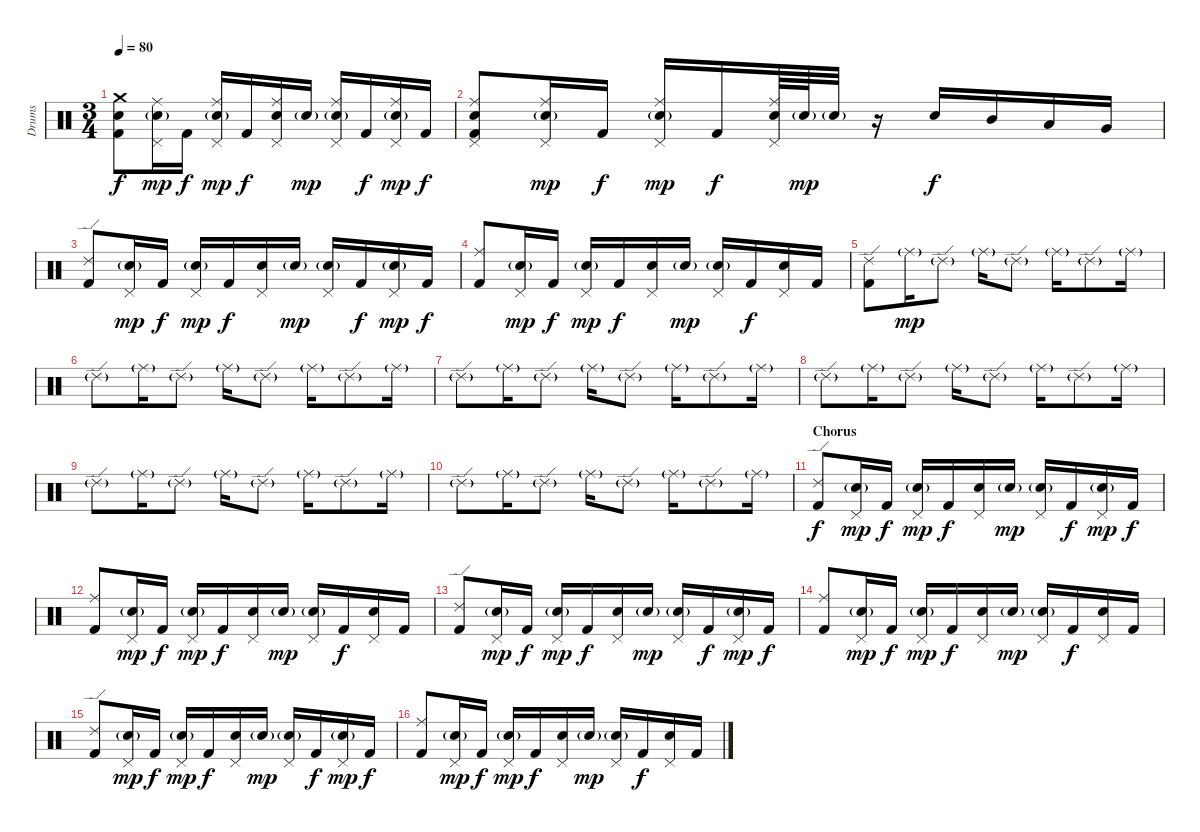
\track ("Drums" "Drums") {instrument percussion}
\staff {score}
\articulation defaults
\ts (3 4)
\tempo 80
\clef neutral
\ks c
("Crash medium (hit)" "Snare (hit) 2" "Kick (hit) 2").8{dy f} ("Ride (middle)" "Pedal Hi-Hat (hit)" "Snare (hit) 2"{g}).16{dy mp} "Kick (hit) 2".16{dy f} ("Ride (middle)" "Pedal Hi-Hat (hit)" "Snare (hit) 2"{g}).16{dy mp} "Kick (hit) 2".16{dy f} ("Ride (middle)" "Pedal Hi-Hat (hit)" "Snare (hit) 2").16 "Snare (hit) 2"{g}.16{dy mp} ("Ride (middle)" "Pedal Hi-Hat (hit)" "Snare (hit) 2"{g}).16 "Kick (hit) 2".16{dy f} ("Ride (middle)" "Pedal Hi-Hat (hit)" "Snare (hit) 2"{g}).16{dy mp} "Kick (hit) 2".16{dy f} |
("Ride (middle)" "Pedal Hi-Hat (hit)" "Snare (hit) 2" "Kick (hit) 2").8 ("Ride (middle)" "Pedal Hi-Hat (hit)" "Snare (hit) 2"{g}).16{dy mp} "Kick (hit) 2".16{dy f} ("Ride (middle)" "Pedal Hi-Hat (hit)" "Snare (hit) 2"{g}).16{dy mp} "Kick (hit) 2".16{dy f} ("Ride (middle)" "Pedal Hi-Hat (hit)" "Snare (hit) 2").64 "Snare (hit) 2"{g}.64{dy mp} "Snare (hit) 2"{g}.32 r.16 "Snare (hit) 2".16{dy f} "Mid Tom (hit)".16 "Low Tom (hit)".16 "Very Low Tom (hit)".16 |
("Ride (edge) 2" "Kick (hit) 2").8 ("Pedal Hi-Hat (hit)" "Snare (hit) 2"{g}).16{dy mp} "Kick (hit) 2".16{dy f} ("Pedal Hi-Hat (hit)" "Snare (hit) 2"{g}).16{dy mp} "Kick (hit) 2".16{dy f} ("Pedal Hi-Hat (hit)" "Snare (hit) 2").16 "Snare (hit) 2"{g}.16{dy mp} ("Pedal Hi-Hat (hit)" "Snare (hit) 2"{g}).16 "Kick (hit) 2".16{dy f} ("Pedal Hi-Hat (hit)" "Snare (hit) 2"{g}).16{dy mp} "Kick (hit) 2".16{dy f} |
("Ride (middle)" "Kick (hit) 2").8 ("Pedal Hi-Hat (hit)" "Snare (hit) 2"{g}).16{dy mp} "Kick (hit) 2".16{dy f} ("Pedal Hi-Hat (hit)" "Snare (hit) 2"{g}).16{dy mp} "Kick (hit) 2".16{dy f} ("Pedal Hi-Hat (hit)" "Snare (hit) 2").16 "Snare (hit) 2"{g}.16{dy mp} ("Pedal Hi-Hat (hit)" "Snare (hit) 2"{g}).16 "Kick (hit) 2".16{dy f} ("Pedal Hi-Hat (hit)" "Snare (hit) 2").16 "Kick (hit) 2".16 |
("Ride (edge) 2" "Kick (hit) 2").8 "Ride (middle)"{g}.16{dy mp} "Ride (edge) 2"{g}.8 "Ride (middle)"{g}.16 "Ride (edge) 2"{g}.8 "Ride (middle)"{g}.16 "Ride (edge) 2"{g}.8 "Ride (middle)"{g}.16 |
"Ride (edge) 2"{g}.8 "Ride (middle)"{g}.16 "Ride (edge) 2"{g}.8 "Ride (middle)"{g}.16 "Ride (edge) 2"{g}.8 "Ride (middle)"{g}.16 "Ride (edge) 2"{g}.8 "Ride (middle)"{g}.16 |
"Ride (edge) 2"{g}.8 "Ride (middle)"{g}.16 "Ride (edge) 2"{g}.8 "Ride (middle)"{g}.16 "Ride (edge) 2"{g}.8 "Ride (middle)"{g}.16 "Ride (edge) 2"{g}.8 "Ride (middle)"{g}.16 |
"Ride (edge) 2"{g}.8 "Ride (middle)"{g}.16 "Ride (edge) 2"{g}.8 "Ride (middle)"{g}.16 "Ride (edge) 2"{g}.8 "Ride (middle)"{g}.16 "Ride (edge) 2"{g}.8 "Ride (middle)"{g}.16 |
"Ride (edge) 2"{g}.8 "Ride (middle)"{g}.16 "Ride (edge) 2"{g}.8 "Ride (middle)"{g}.16 "Ride (edge) 2"{g}.8 "Ride (middle)"{g}.16 "Ride (edge) 2"{g}.8 "Ride (middle)"{g}.16 |
"Ride (edge) 2"{g}.8 "Ride (middle)"{g}.16 "Ride (edge) 2"{g}.8 "Ride (middle)"{g}.16 "Ride (edge) 2"{g}.8 "Ride (middle)"{g}.16 "Ride (edge) 2"{g}.8 "Ride (middle)"{g}.16 |
\section ("" "Chorus")
("Ride (edge) 2" "Kick (hit) 2").8{dy f} ("Pedal Hi-Hat (hit)" "Snare (hit) 2"{g}).16{dy mp} "Kick (hit) 2".16{dy f} ("Pedal Hi-Hat (hit)" "Snare (hit) 2"{g}).16{dy mp} "Kick (hit) 2".16{dy f} ("Pedal Hi-Hat (hit)" "Snare (hit) 2").16 "Snare (hit) 2"{g}.16{dy mp} ("Pedal Hi-Hat (hit)" "Snare (hit) 2"{g}).16 "Kick (hit) 2".16{dy f} ("Pedal Hi-Hat (hit)" "Snare (hit) 2"{g}).16{dy mp} "Kick (hit) 2".16{dy f} |
("Ride (middle)" "Kick (hit) 2").8 ("Pedal Hi-Hat (hit)" "Snare (hit) 2"{g}).16{dy mp} "Kick (hit) 2".16{dy f} ("Pedal Hi-Hat (hit)" "Snare (hit) 2"{g}).16{dy mp} "Kick (hit) 2".16{dy f} ("Pedal Hi-Hat (hit)" "Snare (hit) 2").16 "Snare (hit) 2"{g}.16{dy mp} ("Pedal Hi-Hat (hit)" "Snare (hit) 2"{g}).16 "Kick (hit) 2".16{dy f} ("Pedal Hi-Hat (hit)" "Snare (hit) 2").16 "Kick (hit) 2".16 |
("Ride (edge) 2" "Kick (hit) 2").8 ("Pedal Hi-Hat (hit)" "Snare (hit) 2"{g}).16{dy mp} "Kick (hit) 2".16{dy f} ("Pedal Hi-Hat (hit)" "Snare (hit) 2"{g}).16{dy mp} "Kick (hit) 2".16{dy f} ("Pedal Hi-Hat (hit)" "Snare (hit) 2").16 "Snare (hit) 2"{g}.16{dy mp} ("Pedal Hi-Hat (hit)" "Snare (hit) 2"{g}).16 "Kick (hit) 2".16{dy f} ("Pedal Hi-Hat (hit)" "Snare (hit) 2"{g}).16{dy mp} "Kick (hit) 2".16{dy f} |
("Ride (middle)" "Kick (hit) 2").8 ("Pedal Hi-Hat (hit)" "Snare (hit) 2"{g}).16{dy mp} "Kick (hit) 2".16{dy f} ("Pedal Hi-Hat (hit)" "Snare (hit) 2"{g}).16{dy mp} "Kick (hit) 2".16{dy f} ("Pedal Hi-Hat (hit)" "Snare (hit) 2").16 "Snare (hit) 2"{g}.16{dy mp} ("Pedal Hi-Hat (hit)" "Snare (hit) 2"{g}).16 "Kick (hit) 2".16{dy f} ("Pedal Hi-Hat (hit)" "Snare (hit) 2").16 "Kick (hit) 2".16 |
("Ride (edge) 2" "Kick (hit) 2").8 ("Pedal Hi-Hat (hit)" "Snare (hit) 2"{g}).16{dy mp} "Kick (hit) 2".16{dy f} ("Pedal Hi-Hat (hit)" "Snare (hit) 2"{g}).16{dy mp} "Kick (hit) 2".16{dy f} ("Pedal Hi-Hat (hit)" "Snare (hit) 2").16 "Snare (hit) 2"{g}.16{dy mp} ("Pedal Hi-Hat (hit)" "Snare (hit) 2"{g}).16 "Kick (hit) 2".16{dy f} ("Pedal Hi-Hat (hit)" "Snare (hit) 2"{g}).16{dy mp} "Kick (hit) 2".16{dy f} |
("Ride (middle)" "Kick (hit) 2").8 ("Pedal Hi-Hat (hit)" "Snare (hit) 2"{g}).16{dy mp} "Kick (hit) 2".16{dy f} ("Pedal Hi-Hat (hit)" "Snare (hit) 2"{g}).16{dy mp} "Kick (hit) 2".16{dy f} ("Pedal Hi-Hat (hit)" "Snare (hit) 2").16 "Snare (hit) 2"{g}.16{dy mp} ("Pedal Hi-Hat (hit)" "Snare (hit) 2"{g}).16 "Kick (hit) 2".16{dy f} ("Pedal Hi-Hat (hit)" "Snare (hit) 2").16 "Kick (hit) 2".16
